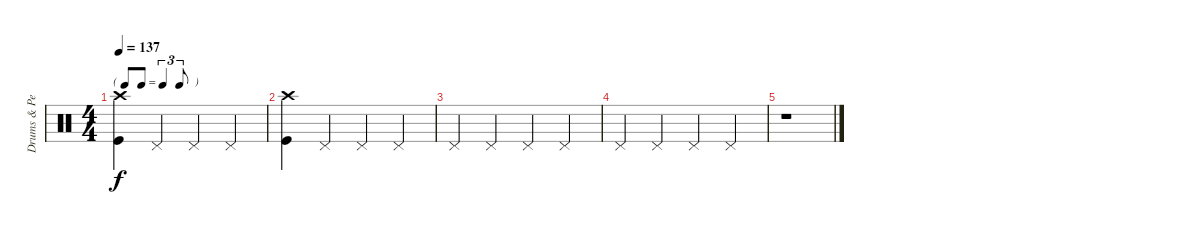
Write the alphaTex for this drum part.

\track ("Drums & Percussion (Matt)" "Drums & Pe") {instrument percussion}
\staff {score}
\articulation defaults
\ts (4 4)
\tf triplet8th
\tempo 137
\clef neutral
\ks c
("Crash high (hit)" "Kick (hit)").4{dy f} "Pedal Hi-Hat (hit)".4 "Pedal Hi-Hat (hit)".4 "Pedal Hi-Hat (hit)".4 |
("Crash high (hit)" "Kick (hit)").4 "Pedal Hi-Hat (hit)".4 "Pedal Hi-Hat (hit)".4 "Pedal Hi-Hat (hit)".4 |
"Pedal Hi-Hat (hit)".4 "Pedal Hi-Hat (hit)".4 "Pedal Hi-Hat (hit)".4 "Pedal Hi-Hat (hit)".4 |
"Pedal Hi-Hat (hit)".4 "Pedal Hi-Hat (hit)".4 "Pedal Hi-Hat (hit)".4 "Pedal Hi-Hat (hit)".4 |
r.1
